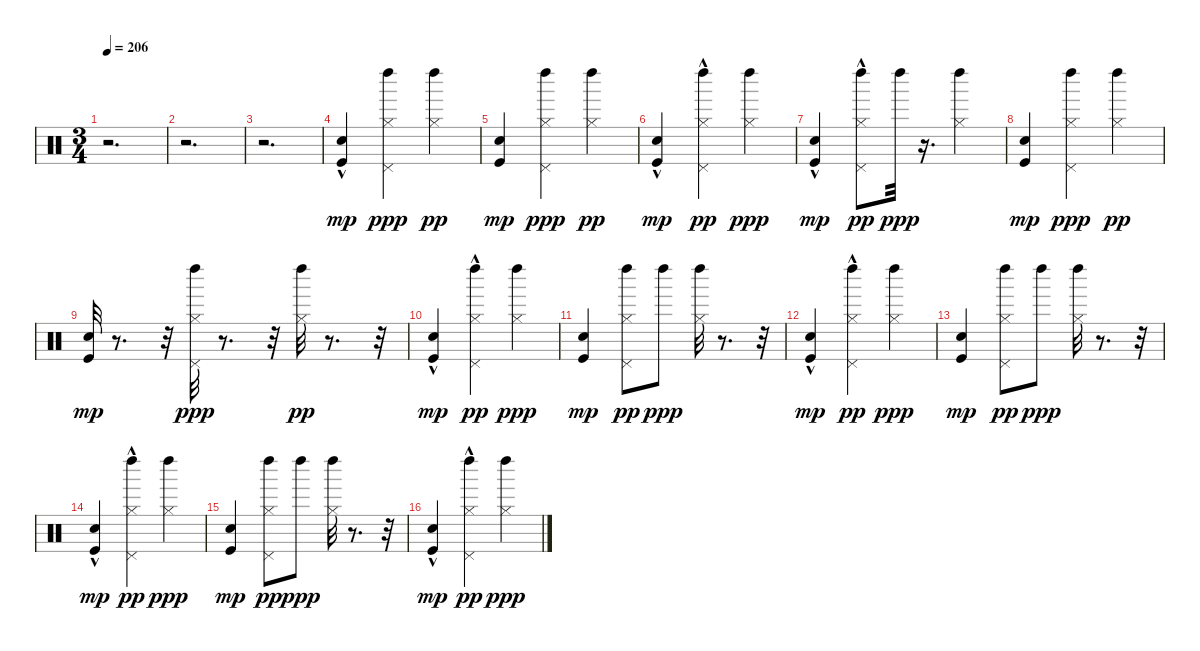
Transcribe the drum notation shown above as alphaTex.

\track "" {instrument percussion}
\staff {score}
\articulation defaults
\ts (3 4)
\tempo 206
\clef neutral
\ks c
r.2{d dy mp} |
r.2{d} |
r.2{d} |
("Kick (hit)"{hac} "Snare (hit)").4 ("Pedal Hi-Hat (hit)" "Hi-Hat (closed)" "Left Maraca (hit)").4{dy ppp} ("Hi-Hat (closed)" "Left Maraca (hit)").4{dy pp} |
("Kick (hit)" "Snare (hit)").4{dy mp} ("Pedal Hi-Hat (hit)" "Hi-Hat (closed)" "Left Maraca (hit)").4{dy ppp} ("Hi-Hat (closed)" "Left Maraca (hit)").4{dy pp} |
("Kick (hit)"{hac} "Snare (hit)"{hac}).4{dy mp} ("Pedal Hi-Hat (hit)"{hac} "Hi-Hat (closed)" "Left Maraca (hit)").4{dy pp} ("Hi-Hat (closed)" "Left Maraca (hit)").4{dy ppp} |
("Kick (hit)" "Snare (hit)"{hac}).4{dy mp} ("Pedal Hi-Hat (hit)"{hac} "Hi-Hat (closed)" "Left Maraca (hit)").8{dy pp} "Left Maraca (hit)".32{dy ppp} r.16{d} ("Hi-Hat (closed)" "Left Maraca (hit)").4 |
("Kick (hit)" "Snare (hit)").4{dy mp} ("Pedal Hi-Hat (hit)" "Hi-Hat (closed)" "Left Maraca (hit)").4{dy ppp} ("Hi-Hat (closed)" "Left Maraca (hit)").4{dy pp} |
("Kick (hit)" "Snare (hit)").32{dy mp} r.8{d} r.32 ("Pedal Hi-Hat (hit)" "Hi-Hat (closed)" "Left Maraca (hit)").32{dy ppp} r.8{d} r.32 ("Hi-Hat (closed)" "Left Maraca (hit)").32{dy pp} r.8{d} r.32 |
("Kick (hit)"{hac} "Snare (hit)"{hac}).4{dy mp} ("Pedal Hi-Hat (hit)"{hac} "Hi-Hat (closed)" "Left Maraca (hit)").4{dy pp} ("Hi-Hat (closed)" "Left Maraca (hit)").4{dy ppp} |
("Kick (hit)" "Snare (hit)").4{dy mp} ("Pedal Hi-Hat (hit)" "Hi-Hat (closed)" "Left Maraca (hit)").8{dy pp} "Left Maraca (hit)".8{dy ppp} ("Hi-Hat (closed)" "Left Maraca (hit)").32 r.8{d} r.32 |
("Kick (hit)"{hac} "Snare (hit)"{hac}).4{dy mp} ("Pedal Hi-Hat (hit)"{hac} "Hi-Hat (closed)" "Left Maraca (hit)").4{dy pp} ("Hi-Hat (closed)" "Left Maraca (hit)").4{dy ppp} |
("Kick (hit)" "Snare (hit)").4{dy mp} ("Pedal Hi-Hat (hit)" "Hi-Hat (closed)" "Left Maraca (hit)").8{dy pp} "Left Maraca (hit)".8{dy ppp} ("Hi-Hat (closed)" "Left Maraca (hit)").32 r.8{d} r.32 |
("Kick (hit)"{hac} "Snare (hit)"{hac}).4{dy mp} ("Pedal Hi-Hat (hit)"{hac} "Hi-Hat (closed)" "Left Maraca (hit)").4{dy pp} ("Hi-Hat (closed)" "Left Maraca (hit)").4{dy ppp} |
("Kick (hit)" "Snare (hit)").4{dy mp} ("Pedal Hi-Hat (hit)" "Hi-Hat (closed)" "Left Maraca (hit)").8{dy pp} "Left Maraca (hit)".8{dy ppp} ("Hi-Hat (closed)" "Left Maraca (hit)").32 r.8{d} r.32 |
("Kick (hit)"{hac} "Snare (hit)"{hac}).4{dy mp} ("Pedal Hi-Hat (hit)"{hac} "Hi-Hat (closed)" "Left Maraca (hit)").4{dy pp} ("Hi-Hat (closed)" "Left Maraca (hit)").4{dy ppp}
